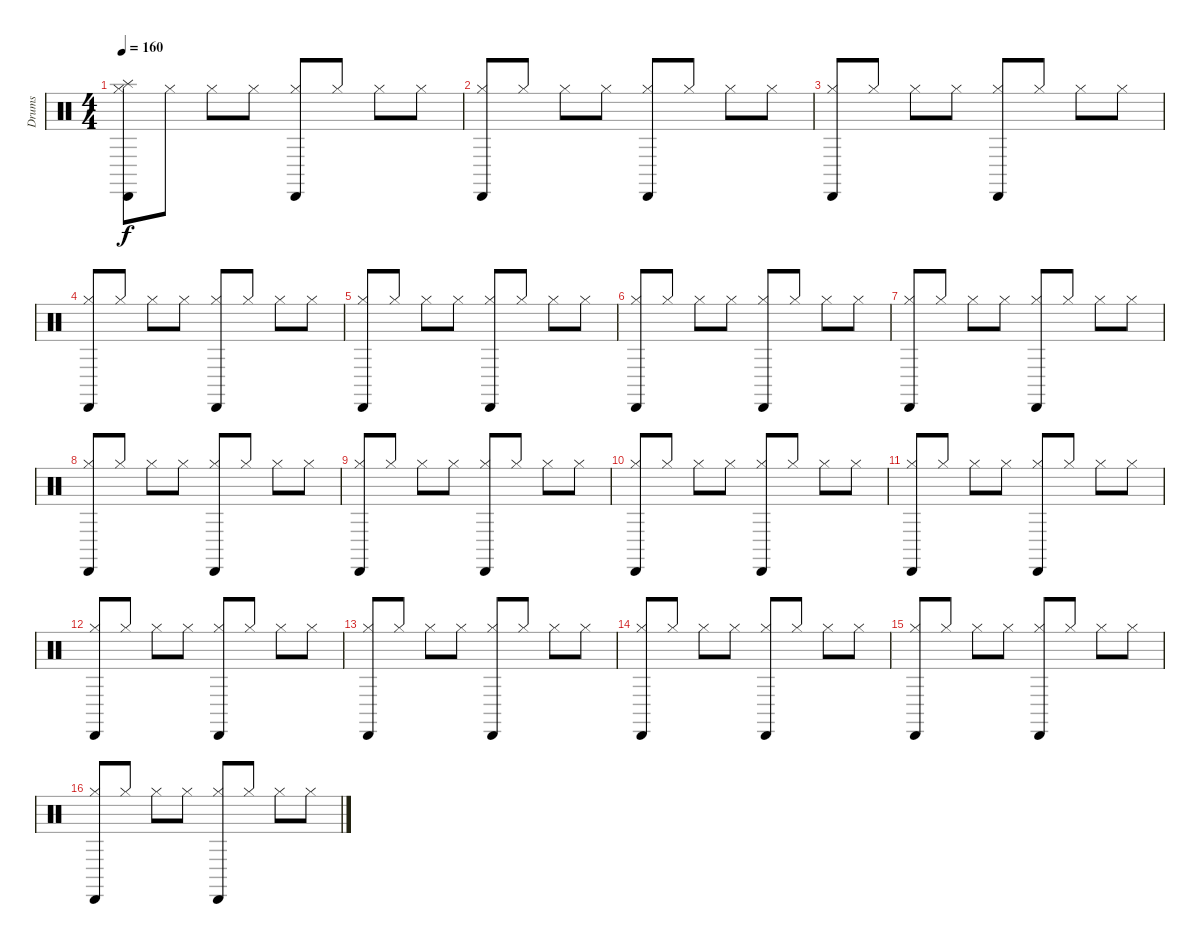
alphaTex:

\track ("Drums" "Drums") {instrument percussion}
\staff {score}
\articulation defaults
\ts (4 4)
\tempo 160
\clef neutral
\ks c
("Hi-Hat (closed)" "Cabasa (hit)" "Splash (hit)").8{dy f} "Hi-Hat (closed)".8 "Hi-Hat (closed)".8 "Hi-Hat (closed)".8 ("Hi-Hat (closed)" "Cabasa (hit)").8 "Hi-Hat (closed)".8 "Hi-Hat (closed)".8 "Hi-Hat (closed)".8 |
("Hi-Hat (closed)" "Cabasa (hit)").8 "Hi-Hat (closed)".8 "Hi-Hat (closed)".8 "Hi-Hat (closed)".8 ("Hi-Hat (closed)" "Cabasa (hit)").8 "Hi-Hat (closed)".8 "Hi-Hat (closed)".8 "Hi-Hat (closed)".8 |
("Hi-Hat (closed)" "Cabasa (hit)").8 "Hi-Hat (closed)".8 "Hi-Hat (closed)".8 "Hi-Hat (closed)".8 ("Hi-Hat (closed)" "Cabasa (hit)").8 "Hi-Hat (closed)".8 "Hi-Hat (closed)".8 "Hi-Hat (closed)".8 |
("Hi-Hat (closed)" "Cabasa (hit)").8 "Hi-Hat (closed)".8 "Hi-Hat (closed)".8 "Hi-Hat (closed)".8 ("Hi-Hat (closed)" "Cabasa (hit)").8 "Hi-Hat (closed)".8 "Hi-Hat (closed)".8 "Hi-Hat (closed)".8 |
("Hi-Hat (closed)" "Cabasa (hit)").8 "Hi-Hat (closed)".8 "Hi-Hat (closed)".8 "Hi-Hat (closed)".8 ("Hi-Hat (closed)" "Cabasa (hit)").8 "Hi-Hat (closed)".8 "Hi-Hat (closed)".8 "Hi-Hat (closed)".8 |
("Hi-Hat (closed)" "Cabasa (hit)").8 "Hi-Hat (closed)".8 "Hi-Hat (closed)".8 "Hi-Hat (closed)".8 ("Hi-Hat (closed)" "Cabasa (hit)").8 "Hi-Hat (closed)".8 "Hi-Hat (closed)".8 "Hi-Hat (closed)".8 |
("Hi-Hat (closed)" "Cabasa (hit)").8 "Hi-Hat (closed)".8 "Hi-Hat (closed)".8 "Hi-Hat (closed)".8 ("Hi-Hat (closed)" "Cabasa (hit)").8 "Hi-Hat (closed)".8 "Hi-Hat (closed)".8 "Hi-Hat (closed)".8 |
("Hi-Hat (closed)" "Cabasa (hit)").8 "Hi-Hat (closed)".8 "Hi-Hat (closed)".8 "Hi-Hat (closed)".8 ("Hi-Hat (closed)" "Cabasa (hit)").8 "Hi-Hat (closed)".8 "Hi-Hat (closed)".8 "Hi-Hat (closed)".8 |
("Hi-Hat (closed)" "Cabasa (hit)").8 "Hi-Hat (closed)".8 "Hi-Hat (closed)".8 "Hi-Hat (closed)".8 ("Hi-Hat (closed)" "Cabasa (hit)").8 "Hi-Hat (closed)".8 "Hi-Hat (closed)".8 "Hi-Hat (closed)".8 |
("Hi-Hat (closed)" "Cabasa (hit)").8 "Hi-Hat (closed)".8 "Hi-Hat (closed)".8 "Hi-Hat (closed)".8 ("Hi-Hat (closed)" "Cabasa (hit)").8 "Hi-Hat (closed)".8 "Hi-Hat (closed)".8 "Hi-Hat (closed)".8 |
("Hi-Hat (closed)" "Cabasa (hit)").8 "Hi-Hat (closed)".8 "Hi-Hat (closed)".8 "Hi-Hat (closed)".8 ("Hi-Hat (closed)" "Cabasa (hit)").8 "Hi-Hat (closed)".8 "Hi-Hat (closed)".8 "Hi-Hat (closed)".8 |
("Hi-Hat (closed)" "Cabasa (hit)").8 "Hi-Hat (closed)".8 "Hi-Hat (closed)".8 "Hi-Hat (closed)".8 ("Hi-Hat (closed)" "Cabasa (hit)").8 "Hi-Hat (closed)".8 "Hi-Hat (closed)".8 "Hi-Hat (closed)".8 |
("Hi-Hat (closed)" "Cabasa (hit)").8 "Hi-Hat (closed)".8 "Hi-Hat (closed)".8 "Hi-Hat (closed)".8 ("Hi-Hat (closed)" "Cabasa (hit)").8 "Hi-Hat (closed)".8 "Hi-Hat (closed)".8 "Hi-Hat (closed)".8 |
("Hi-Hat (closed)" "Cabasa (hit)").8 "Hi-Hat (closed)".8 "Hi-Hat (closed)".8 "Hi-Hat (closed)".8 ("Hi-Hat (closed)" "Cabasa (hit)").8 "Hi-Hat (closed)".8 "Hi-Hat (closed)".8 "Hi-Hat (closed)".8 |
("Hi-Hat (closed)" "Cabasa (hit)").8 "Hi-Hat (closed)".8 "Hi-Hat (closed)".8 "Hi-Hat (closed)".8 ("Hi-Hat (closed)" "Cabasa (hit)").8 "Hi-Hat (closed)".8 "Hi-Hat (closed)".8 "Hi-Hat (closed)".8 |
("Hi-Hat (closed)" "Cabasa (hit)").8 "Hi-Hat (closed)".8 "Hi-Hat (closed)".8 "Hi-Hat (closed)".8 ("Hi-Hat (closed)" "Cabasa (hit)").8 "Hi-Hat (closed)".8 "Hi-Hat (closed)".8 "Hi-Hat (closed)".8
